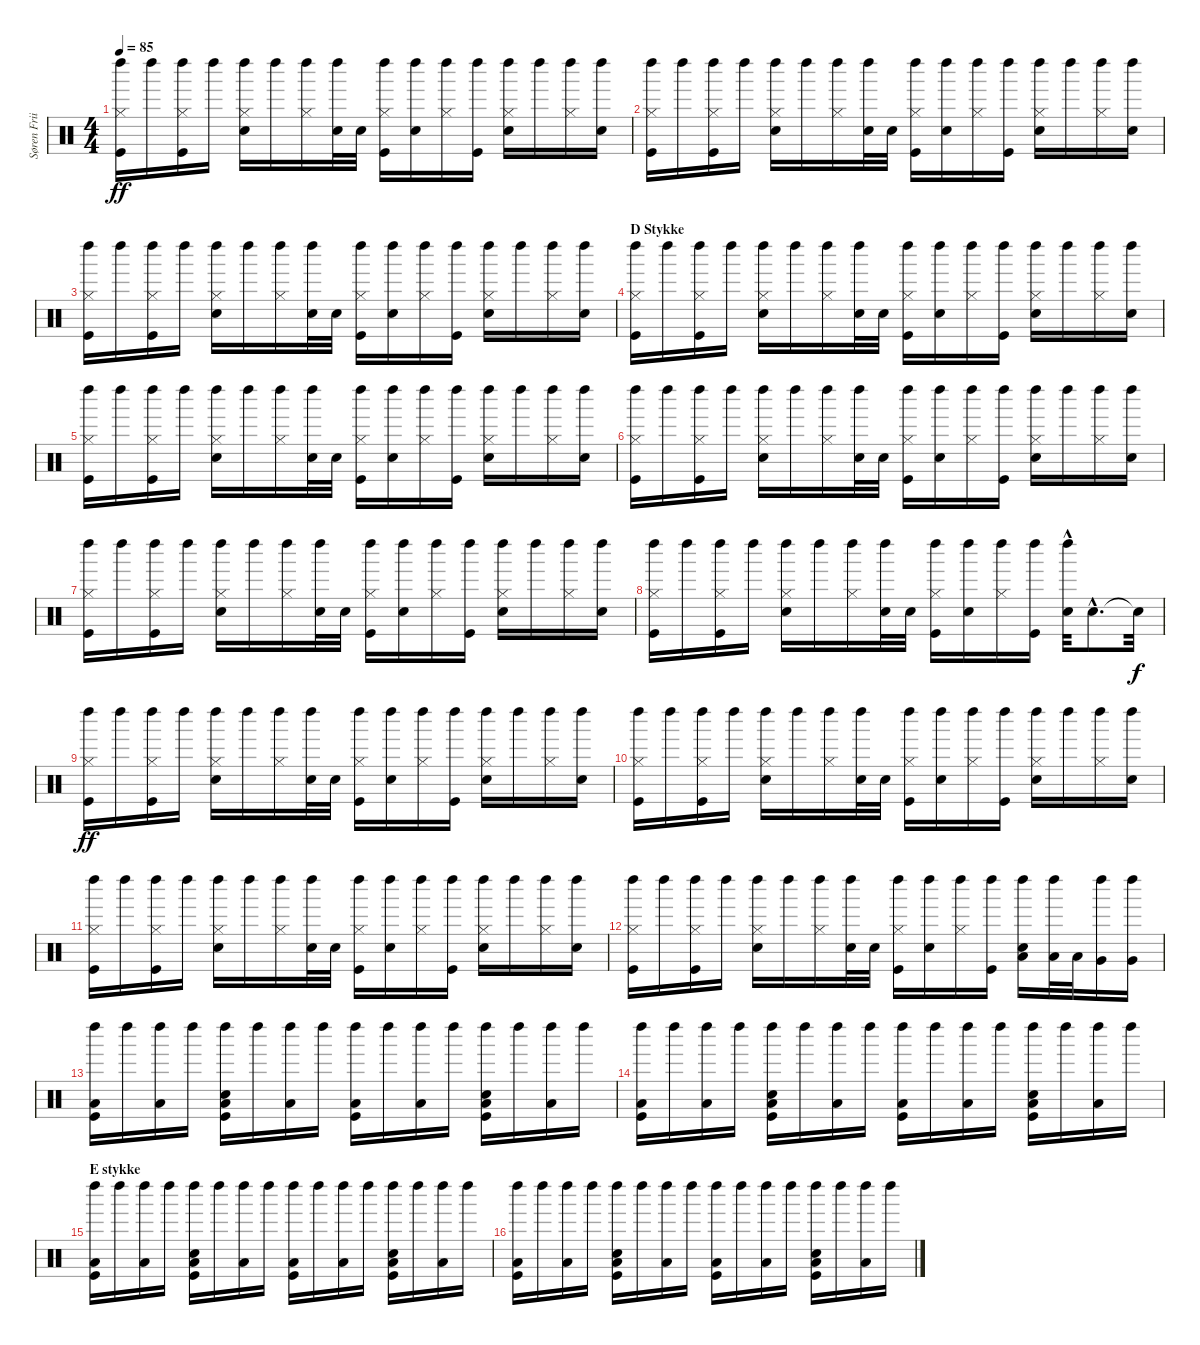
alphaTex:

\track ("Søren Friis (Drums)" "Søren Frii") {instrument percussion}
\staff {score}
\articulation defaults
\ts (4 4)
\tempo 85
\clef neutral
\ks c
("Kick (hit)" "Hi-Hat (closed)" "Left Maraca (hit)").16{dy ff} "Left Maraca (hit)".16 ("Kick (hit)" "Hi-Hat (closed)" "Left Maraca (hit)").16 "Left Maraca (hit)".16 ("Snare (hit) 2" "Hi-Hat (closed)" "Left Maraca (hit)").16 "Left Maraca (hit)".16 ("Hi-Hat (closed)" "Left Maraca (hit)").16 ("Snare (hit) 2" "Left Maraca (hit)").32 "Snare (hit) 2".32 ("Kick (hit)" "Hi-Hat (closed)" "Left Maraca (hit)").16 ("Snare (hit) 2" "Left Maraca (hit)").16 ("Hi-Hat (closed)" "Left Maraca (hit)").16 ("Kick (hit)" "Left Maraca (hit)").16 ("Snare (hit) 2" "Hi-Hat (closed)" "Left Maraca (hit)").16 "Left Maraca (hit)".16 ("Hi-Hat (closed)" "Left Maraca (hit)").16 ("Snare (hit) 2" "Left Maraca (hit)").16 |
("Kick (hit)" "Hi-Hat (closed)" "Left Maraca (hit)").16 "Left Maraca (hit)".16 ("Kick (hit)" "Hi-Hat (closed)" "Left Maraca (hit)").16 "Left Maraca (hit)".16 ("Snare (hit) 2" "Hi-Hat (closed)" "Left Maraca (hit)").16 "Left Maraca (hit)".16 ("Hi-Hat (closed)" "Left Maraca (hit)").16 ("Snare (hit) 2" "Left Maraca (hit)").32 "Snare (hit) 2".32 ("Kick (hit)" "Hi-Hat (closed)" "Left Maraca (hit)").16 ("Snare (hit) 2" "Left Maraca (hit)").16 ("Hi-Hat (closed)" "Left Maraca (hit)").16 ("Kick (hit)" "Left Maraca (hit)").16 ("Snare (hit) 2" "Hi-Hat (closed)" "Left Maraca (hit)").16 "Left Maraca (hit)".16 ("Hi-Hat (closed)" "Left Maraca (hit)").16 ("Snare (hit) 2" "Left Maraca (hit)").16 |
("Kick (hit)" "Hi-Hat (closed)" "Left Maraca (hit)").16 "Left Maraca (hit)".16 ("Kick (hit)" "Hi-Hat (closed)" "Left Maraca (hit)").16 "Left Maraca (hit)".16 ("Snare (hit) 2" "Hi-Hat (closed)" "Left Maraca (hit)").16 "Left Maraca (hit)".16 ("Hi-Hat (closed)" "Left Maraca (hit)").16 ("Snare (hit) 2" "Left Maraca (hit)").32 "Snare (hit) 2".32 ("Kick (hit)" "Hi-Hat (closed)" "Left Maraca (hit)").16 ("Snare (hit) 2" "Left Maraca (hit)").16 ("Hi-Hat (closed)" "Left Maraca (hit)").16 ("Kick (hit)" "Left Maraca (hit)").16 ("Snare (hit) 2" "Hi-Hat (closed)" "Left Maraca (hit)").16 "Left Maraca (hit)".16 ("Hi-Hat (closed)" "Left Maraca (hit)").16 ("Snare (hit) 2" "Left Maraca (hit)").16 |
\section ("" "D Stykke")
("Kick (hit)" "Hi-Hat (closed)" "Left Maraca (hit)").16 "Left Maraca (hit)".16 ("Kick (hit)" "Hi-Hat (closed)" "Left Maraca (hit)").16 "Left Maraca (hit)".16 ("Snare (hit) 2" "Hi-Hat (closed)" "Left Maraca (hit)").16 "Left Maraca (hit)".16 ("Hi-Hat (closed)" "Left Maraca (hit)").16 ("Snare (hit) 2" "Left Maraca (hit)").32 "Snare (hit) 2".32 ("Kick (hit)" "Hi-Hat (closed)" "Left Maraca (hit)").16 ("Snare (hit) 2" "Left Maraca (hit)").16 ("Hi-Hat (closed)" "Left Maraca (hit)").16 ("Kick (hit)" "Left Maraca (hit)").16 ("Snare (hit) 2" "Hi-Hat (closed)" "Left Maraca (hit)").16 "Left Maraca (hit)".16 ("Hi-Hat (closed)" "Left Maraca (hit)").16 ("Snare (hit) 2" "Left Maraca (hit)").16 |
("Kick (hit)" "Hi-Hat (closed)" "Left Maraca (hit)").16 "Left Maraca (hit)".16 ("Kick (hit)" "Hi-Hat (closed)" "Left Maraca (hit)").16 "Left Maraca (hit)".16 ("Snare (hit) 2" "Hi-Hat (closed)" "Left Maraca (hit)").16 "Left Maraca (hit)".16 ("Hi-Hat (closed)" "Left Maraca (hit)").16 ("Snare (hit) 2" "Left Maraca (hit)").32 "Snare (hit) 2".32 ("Kick (hit)" "Hi-Hat (closed)" "Left Maraca (hit)").16 ("Snare (hit) 2" "Left Maraca (hit)").16 ("Hi-Hat (closed)" "Left Maraca (hit)").16 ("Kick (hit)" "Left Maraca (hit)").16 ("Snare (hit) 2" "Hi-Hat (closed)" "Left Maraca (hit)").16 "Left Maraca (hit)".16 ("Hi-Hat (closed)" "Left Maraca (hit)").16 ("Snare (hit) 2" "Left Maraca (hit)").16 |
("Kick (hit)" "Hi-Hat (closed)" "Left Maraca (hit)").16 "Left Maraca (hit)".16 ("Kick (hit)" "Hi-Hat (closed)" "Left Maraca (hit)").16 "Left Maraca (hit)".16 ("Snare (hit) 2" "Hi-Hat (closed)" "Left Maraca (hit)").16 "Left Maraca (hit)".16 ("Hi-Hat (closed)" "Left Maraca (hit)").16 ("Snare (hit) 2" "Left Maraca (hit)").32 "Snare (hit) 2".32 ("Kick (hit)" "Hi-Hat (closed)" "Left Maraca (hit)").16 ("Snare (hit) 2" "Left Maraca (hit)").16 ("Hi-Hat (closed)" "Left Maraca (hit)").16 ("Kick (hit)" "Left Maraca (hit)").16 ("Snare (hit) 2" "Hi-Hat (closed)" "Left Maraca (hit)").16 "Left Maraca (hit)".16 ("Hi-Hat (closed)" "Left Maraca (hit)").16 ("Snare (hit) 2" "Left Maraca (hit)").16 |
("Kick (hit)" "Hi-Hat (closed)" "Left Maraca (hit)").16 "Left Maraca (hit)".16 ("Kick (hit)" "Hi-Hat (closed)" "Left Maraca (hit)").16 "Left Maraca (hit)".16 ("Snare (hit) 2" "Hi-Hat (closed)" "Left Maraca (hit)").16 "Left Maraca (hit)".16 ("Hi-Hat (closed)" "Left Maraca (hit)").16 ("Snare (hit) 2" "Left Maraca (hit)").32 "Snare (hit) 2".32 ("Kick (hit)" "Hi-Hat (closed)" "Left Maraca (hit)").16 ("Snare (hit) 2" "Left Maraca (hit)").16 ("Hi-Hat (closed)" "Left Maraca (hit)").16 ("Kick (hit)" "Left Maraca (hit)").16 ("Snare (hit) 2" "Hi-Hat (closed)" "Left Maraca (hit)").16 "Left Maraca (hit)".16 ("Hi-Hat (closed)" "Left Maraca (hit)").16 ("Snare (hit) 2" "Left Maraca (hit)").16 |
("Kick (hit)" "Hi-Hat (closed)" "Left Maraca (hit)").16 "Left Maraca (hit)".16 ("Kick (hit)" "Hi-Hat (closed)" "Left Maraca (hit)").16 "Left Maraca (hit)".16 ("Snare (hit) 2" "Hi-Hat (closed)" "Left Maraca (hit)").16 "Left Maraca (hit)".16 ("Hi-Hat (closed)" "Left Maraca (hit)").16 ("Snare (hit) 2" "Left Maraca (hit)").32 "Snare (hit) 2".32 ("Kick (hit)" "Hi-Hat (closed)" "Left Maraca (hit)").16 ("Snare (hit) 2" "Left Maraca (hit)").16 ("Hi-Hat (closed)" "Left Maraca (hit)").16 ("Kick (hit)" "Left Maraca (hit)").16 ("Snare (hit) 2" "Left Maraca (hit)"{hac}).32 "Snare (hit) 2"{hac}.8{d} "Snare (hit)"{t}.32{dy f} |
("Kick (hit)" "Hi-Hat (closed)" "Left Maraca (hit)").16{dy ff} "Left Maraca (hit)".16 ("Kick (hit)" "Hi-Hat (closed)" "Left Maraca (hit)").16 "Left Maraca (hit)".16 ("Snare (hit) 2" "Hi-Hat (closed)" "Left Maraca (hit)").16 "Left Maraca (hit)".16 ("Hi-Hat (closed)" "Left Maraca (hit)").16 ("Snare (hit) 2" "Left Maraca (hit)").32 "Snare (hit) 2".32 ("Kick (hit)" "Hi-Hat (closed)" "Left Maraca (hit)").16 ("Snare (hit) 2" "Left Maraca (hit)").16 ("Hi-Hat (closed)" "Left Maraca (hit)").16 ("Kick (hit)" "Left Maraca (hit)").16 ("Snare (hit) 2" "Hi-Hat (closed)" "Left Maraca (hit)").16 "Left Maraca (hit)".16 ("Hi-Hat (closed)" "Left Maraca (hit)").16 ("Snare (hit) 2" "Left Maraca (hit)").16 |
("Kick (hit)" "Hi-Hat (closed)" "Left Maraca (hit)").16 "Left Maraca (hit)".16 ("Kick (hit)" "Hi-Hat (closed)" "Left Maraca (hit)").16 "Left Maraca (hit)".16 ("Snare (hit) 2" "Hi-Hat (closed)" "Left Maraca (hit)").16 "Left Maraca (hit)".16 ("Hi-Hat (closed)" "Left Maraca (hit)").16 ("Snare (hit) 2" "Left Maraca (hit)").32 "Snare (hit) 2".32 ("Kick (hit)" "Hi-Hat (closed)" "Left Maraca (hit)").16 ("Snare (hit) 2" "Left Maraca (hit)").16 ("Hi-Hat (closed)" "Left Maraca (hit)").16 ("Kick (hit)" "Left Maraca (hit)").16 ("Snare (hit) 2" "Hi-Hat (closed)" "Left Maraca (hit)").16 "Left Maraca (hit)".16 ("Hi-Hat (closed)" "Left Maraca (hit)").16 ("Snare (hit) 2" "Left Maraca (hit)").16 |
("Kick (hit)" "Hi-Hat (closed)" "Left Maraca (hit)").16 "Left Maraca (hit)".16 ("Kick (hit)" "Hi-Hat (closed)" "Left Maraca (hit)").16 "Left Maraca (hit)".16 ("Snare (hit) 2" "Hi-Hat (closed)" "Left Maraca (hit)").16 "Left Maraca (hit)".16 ("Hi-Hat (closed)" "Left Maraca (hit)").16 ("Snare (hit) 2" "Left Maraca (hit)").32 "Snare (hit) 2".32 ("Kick (hit)" "Hi-Hat (closed)" "Left Maraca (hit)").16 ("Snare (hit) 2" "Left Maraca (hit)").16 ("Hi-Hat (closed)" "Left Maraca (hit)").16 ("Kick (hit)" "Left Maraca (hit)").16 ("Snare (hit) 2" "Hi-Hat (closed)" "Left Maraca (hit)").16 "Left Maraca (hit)".16 ("Hi-Hat (closed)" "Left Maraca (hit)").16 ("Snare (hit) 2" "Left Maraca (hit)").16 |
("Kick (hit)" "Hi-Hat (closed)" "Left Maraca (hit)").16 "Left Maraca (hit)".16 ("Kick (hit)" "Hi-Hat (closed)" "Left Maraca (hit)").16 "Left Maraca (hit)".16 ("Snare (hit) 2" "Hi-Hat (closed)" "Left Maraca (hit)").16 "Left Maraca (hit)".16 ("Hi-Hat (closed)" "Left Maraca (hit)").16 ("Snare (hit) 2" "Left Maraca (hit)").32 "Snare (hit) 2".32 ("Kick (hit)" "Hi-Hat (closed)" "Left Maraca (hit)").16 ("Snare (hit) 2" "Left Maraca (hit)").16 ("Hi-Hat (closed)" "Left Maraca (hit)").16 ("Kick (hit)" "Left Maraca (hit)").16 ("Snare (hit) 2" "Low Floor Tom (hit)" "Left Maraca (hit)").16 ("Low Tom (hit)" "Left Maraca (hit)").32 "Low Tom (hit)".32 ("Very Low Tom (hit)" "Left Maraca (hit)").16 ("Very Low Tom (hit)" "Left Maraca (hit)").16 |
("Kick (hit)" "Low Floor Tom (hit)" "Left Maraca (hit)").16 "Left Maraca (hit)".16 ("Low Floor Tom (hit)" "Left Maraca (hit)").16 "Left Maraca (hit)".16 ("Kick (hit)" "Snare (hit) 2" "Low Floor Tom (hit)" "Left Maraca (hit)").16 "Left Maraca (hit)".16 ("Low Floor Tom (hit)" "Left Maraca (hit)").16 "Left Maraca (hit)".16 ("Kick (hit)" "Low Floor Tom (hit)" "Left Maraca (hit)").16 "Left Maraca (hit)".16 ("Low Floor Tom (hit)" "Left Maraca (hit)").16 "Left Maraca (hit)".16 ("Kick (hit)" "Snare (hit) 2" "Low Floor Tom (hit)" "Left Maraca (hit)").16 "Left Maraca (hit)".16 ("Low Floor Tom (hit)" "Left Maraca (hit)").16 "Left Maraca (hit)".16 |
("Kick (hit)" "Low Floor Tom (hit)" "Left Maraca (hit)").16 "Left Maraca (hit)".16 ("Low Floor Tom (hit)" "Left Maraca (hit)").16 "Left Maraca (hit)".16 ("Kick (hit)" "Snare (hit) 2" "Low Floor Tom (hit)" "Left Maraca (hit)").16 "Left Maraca (hit)".16 ("Low Floor Tom (hit)" "Left Maraca (hit)").16 "Left Maraca (hit)".16 ("Kick (hit)" "Low Floor Tom (hit)" "Left Maraca (hit)").16 "Left Maraca (hit)".16 ("Low Floor Tom (hit)" "Left Maraca (hit)").16 "Left Maraca (hit)".16 ("Kick (hit)" "Snare (hit) 2" "Low Floor Tom (hit)" "Left Maraca (hit)").16 "Left Maraca (hit)".16 ("Low Floor Tom (hit)" "Left Maraca (hit)").16 "Left Maraca (hit)".16 |
\section ("" "E stykke")
("Kick (hit)" "Low Floor Tom (hit)" "Left Maraca (hit)").16 "Left Maraca (hit)".16 ("Low Floor Tom (hit)" "Left Maraca (hit)").16 "Left Maraca (hit)".16 ("Kick (hit)" "Snare (hit) 2" "Low Floor Tom (hit)" "Left Maraca (hit)").16 "Left Maraca (hit)".16 ("Low Floor Tom (hit)" "Left Maraca (hit)").16 "Left Maraca (hit)".16 ("Kick (hit)" "Low Floor Tom (hit)" "Left Maraca (hit)").16 "Left Maraca (hit)".16 ("Low Floor Tom (hit)" "Left Maraca (hit)").16 "Left Maraca (hit)".16 ("Kick (hit)" "Snare (hit) 2" "Low Floor Tom (hit)" "Left Maraca (hit)").16 "Left Maraca (hit)".16 ("Low Floor Tom (hit)" "Left Maraca (hit)").16 "Left Maraca (hit)".16 |
("Kick (hit)" "Low Floor Tom (hit)" "Left Maraca (hit)").16 "Left Maraca (hit)".16 ("Low Floor Tom (hit)" "Left Maraca (hit)").16 "Left Maraca (hit)".16 ("Kick (hit)" "Snare (hit) 2" "Low Floor Tom (hit)" "Left Maraca (hit)").16 "Left Maraca (hit)".16 ("Low Floor Tom (hit)" "Left Maraca (hit)").16 "Left Maraca (hit)".16 ("Kick (hit)" "Low Floor Tom (hit)" "Left Maraca (hit)").16 "Left Maraca (hit)".16 ("Low Floor Tom (hit)" "Left Maraca (hit)").16 "Left Maraca (hit)".16 ("Kick (hit)" "Snare (hit) 2" "Low Floor Tom (hit)" "Left Maraca (hit)").16 "Left Maraca (hit)".16 ("Low Floor Tom (hit)" "Left Maraca (hit)").16 "Left Maraca (hit)".16
